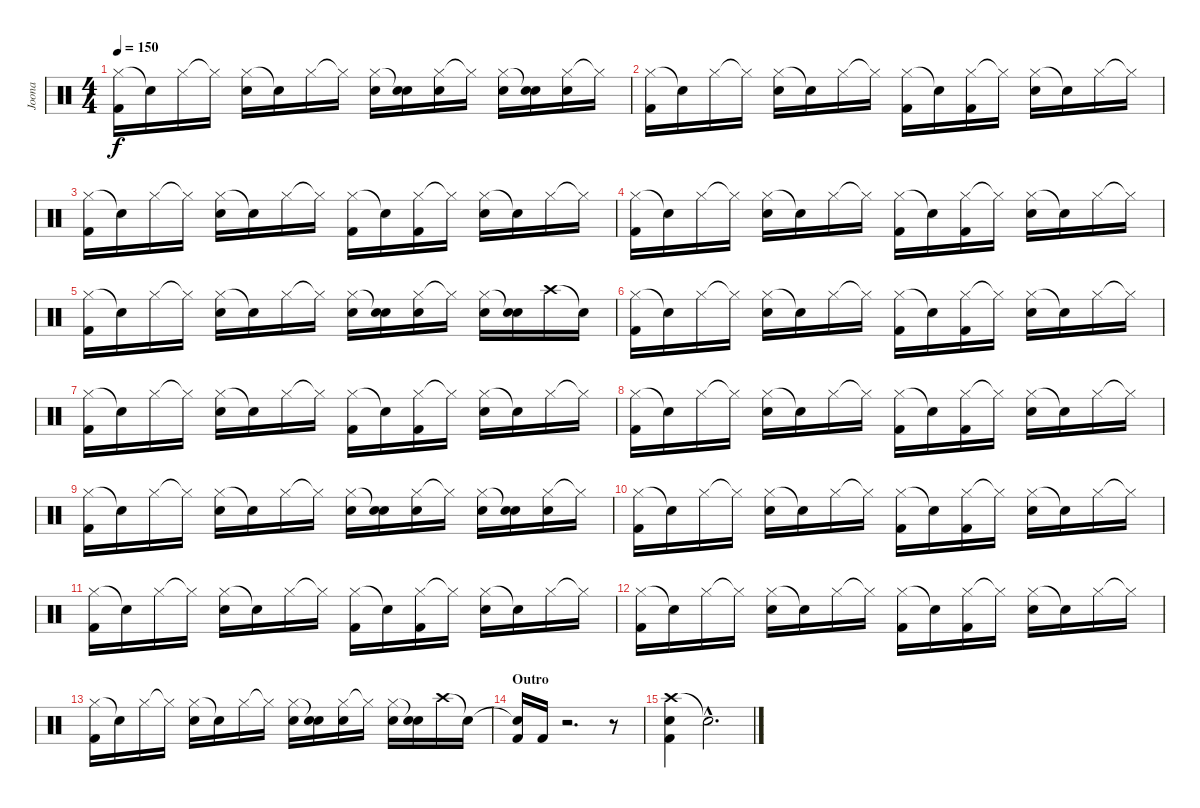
\track ("Joona" "Joona") {instrument percussion}
\staff {score}
\articulation defaults
\ts (4 4)
\tempo 150
\clef neutral
\ks c
("Hi-Hat (closed)" "Kick (hit) 2").16{dy f} "Snare (hit)"{t}.16 "Hi-Hat (closed)".16 "Hi-Hat (closed)"{t}.16 ("Hi-Hat (closed)" "Snare (hit) 2").16 "Snare (hit)"{t}.16 "Hi-Hat (closed)".16 "Hi-Hat (closed)"{t}.16 ("Hi-Hat (closed)" "Snare (hit) 2").16 ("Snare (hit)"{t} "Snare (hit) 2").16 ("Hi-Hat (closed)" "Snare (hit) 2").16 "Hi-Hat (closed)"{t}.16 ("Hi-Hat (closed)" "Snare (hit) 2").16 ("Snare (hit)"{t} "Snare (hit) 2").16 ("Hi-Hat (closed)" "Snare (hit) 2").16 "Hi-Hat (closed)"{t}.16 |
("Hi-Hat (closed)" "Kick (hit) 2").16 "Snare (hit)"{t}.16 "Hi-Hat (closed)".16 "Hi-Hat (closed)"{t}.16 ("Hi-Hat (closed)" "Snare (hit) 2").16 "Snare (hit)"{t}.16 "Hi-Hat (closed)".16 "Hi-Hat (closed)"{t}.16 ("Hi-Hat (closed)" "Kick (hit) 2").16 "Snare (hit)"{t}.16 ("Hi-Hat (closed)" "Kick (hit) 2").16 "Hi-Hat (closed)"{t}.16 ("Hi-Hat (closed)" "Snare (hit) 2").16 "Snare (hit)"{t}.16 "Hi-Hat (closed)".16 "Hi-Hat (closed)"{t}.16 |
("Hi-Hat (closed)" "Kick (hit) 2").16 "Snare (hit)"{t}.16 "Hi-Hat (closed)".16 "Hi-Hat (closed)"{t}.16 ("Hi-Hat (closed)" "Snare (hit) 2").16 "Snare (hit)"{t}.16 "Hi-Hat (closed)".16 "Hi-Hat (closed)"{t}.16 ("Hi-Hat (closed)" "Kick (hit) 2").16 "Snare (hit)"{t}.16 ("Hi-Hat (closed)" "Kick (hit) 2").16 "Hi-Hat (closed)"{t}.16 ("Hi-Hat (closed)" "Snare (hit) 2").16 "Snare (hit)"{t}.16 "Hi-Hat (closed)".16 "Hi-Hat (closed)"{t}.16 |
("Hi-Hat (closed)" "Kick (hit) 2").16 "Snare (hit)"{t}.16 "Hi-Hat (closed)".16 "Hi-Hat (closed)"{t}.16 ("Hi-Hat (closed)" "Snare (hit) 2").16 "Snare (hit)"{t}.16 "Hi-Hat (closed)".16 "Hi-Hat (closed)"{t}.16 ("Hi-Hat (closed)" "Kick (hit) 2").16 "Snare (hit)"{t}.16 ("Hi-Hat (closed)" "Kick (hit) 2").16 "Hi-Hat (closed)"{t}.16 ("Hi-Hat (closed)" "Snare (hit) 2").16 "Snare (hit)"{t}.16 "Hi-Hat (closed)".16 "Hi-Hat (closed)"{t}.16 |
("Hi-Hat (closed)" "Kick (hit) 2").16 "Snare (hit)"{t}.16 "Hi-Hat (closed)".16 "Hi-Hat (closed)"{t}.16 ("Hi-Hat (closed)" "Snare (hit) 2").16 "Snare (hit)"{t}.16 "Hi-Hat (closed)".16 "Hi-Hat (closed)"{t}.16 ("Hi-Hat (closed)" "Snare (hit) 2").16 ("Snare (hit)"{t} "Snare (hit) 2").16 ("Hi-Hat (closed)" "Snare (hit) 2").16 "Hi-Hat (closed)"{t}.16 ("Hi-Hat (closed)" "Snare (hit) 2").16 ("Snare (hit)"{t} "Snare (hit) 2").16 "Crash high (hit)".16 "Snare (hit)"{t}.16 |
("Hi-Hat (closed)" "Kick (hit) 2").16 "Snare (hit)"{t}.16 "Hi-Hat (closed)".16 "Hi-Hat (closed)"{t}.16 ("Hi-Hat (closed)" "Snare (hit) 2").16 "Snare (hit)"{t}.16 "Hi-Hat (closed)".16 "Hi-Hat (closed)"{t}.16 ("Hi-Hat (closed)" "Kick (hit) 2").16 "Snare (hit)"{t}.16 ("Hi-Hat (closed)" "Kick (hit) 2").16 "Hi-Hat (closed)"{t}.16 ("Hi-Hat (closed)" "Snare (hit) 2").16 "Snare (hit)"{t}.16 "Hi-Hat (closed)".16 "Hi-Hat (closed)"{t}.16 |
("Hi-Hat (closed)" "Kick (hit) 2").16 "Snare (hit)"{t}.16 "Hi-Hat (closed)".16 "Hi-Hat (closed)"{t}.16 ("Hi-Hat (closed)" "Snare (hit) 2").16 "Snare (hit)"{t}.16 "Hi-Hat (closed)".16 "Hi-Hat (closed)"{t}.16 ("Hi-Hat (closed)" "Kick (hit) 2").16 "Snare (hit)"{t}.16 ("Hi-Hat (closed)" "Kick (hit) 2").16 "Hi-Hat (closed)"{t}.16 ("Hi-Hat (closed)" "Snare (hit) 2").16 "Snare (hit)"{t}.16 "Hi-Hat (closed)".16 "Hi-Hat (closed)"{t}.16 |
("Hi-Hat (closed)" "Kick (hit) 2").16 "Snare (hit)"{t}.16 "Hi-Hat (closed)".16 "Hi-Hat (closed)"{t}.16 ("Hi-Hat (closed)" "Snare (hit) 2").16 "Snare (hit)"{t}.16 "Hi-Hat (closed)".16 "Hi-Hat (closed)"{t}.16 ("Hi-Hat (closed)" "Kick (hit) 2").16 "Snare (hit)"{t}.16 ("Hi-Hat (closed)" "Kick (hit) 2").16 "Hi-Hat (closed)"{t}.16 ("Hi-Hat (closed)" "Snare (hit) 2").16 "Snare (hit)"{t}.16 "Hi-Hat (closed)".16 "Hi-Hat (closed)"{t}.16 |
("Hi-Hat (closed)" "Kick (hit) 2").16 "Snare (hit)"{t}.16 "Hi-Hat (closed)".16 "Hi-Hat (closed)"{t}.16 ("Hi-Hat (closed)" "Snare (hit) 2").16 "Snare (hit)"{t}.16 "Hi-Hat (closed)".16 "Hi-Hat (closed)"{t}.16 ("Hi-Hat (closed)" "Snare (hit) 2").16 ("Snare (hit)"{t} "Snare (hit) 2").16 ("Hi-Hat (closed)" "Snare (hit) 2").16 "Hi-Hat (closed)"{t}.16 ("Hi-Hat (closed)" "Snare (hit) 2").16 ("Snare (hit)"{t} "Snare (hit) 2").16 ("Hi-Hat (closed)" "Snare (hit) 2").16 "Hi-Hat (closed)"{t}.16 |
("Hi-Hat (closed)" "Kick (hit) 2").16 "Snare (hit)"{t}.16 "Hi-Hat (closed)".16 "Hi-Hat (closed)"{t}.16 ("Hi-Hat (closed)" "Snare (hit) 2").16 "Snare (hit)"{t}.16 "Hi-Hat (closed)".16 "Hi-Hat (closed)"{t}.16 ("Hi-Hat (closed)" "Kick (hit) 2").16 "Snare (hit)"{t}.16 ("Hi-Hat (closed)" "Kick (hit) 2").16 "Hi-Hat (closed)"{t}.16 ("Hi-Hat (closed)" "Snare (hit) 2").16 "Snare (hit)"{t}.16 "Hi-Hat (closed)".16 "Hi-Hat (closed)"{t}.16 |
("Hi-Hat (closed)" "Kick (hit) 2").16 "Snare (hit)"{t}.16 "Hi-Hat (closed)".16 "Hi-Hat (closed)"{t}.16 ("Hi-Hat (closed)" "Snare (hit) 2").16 "Snare (hit)"{t}.16 "Hi-Hat (closed)".16 "Hi-Hat (closed)"{t}.16 ("Hi-Hat (closed)" "Kick (hit) 2").16 "Snare (hit)"{t}.16 ("Hi-Hat (closed)" "Kick (hit) 2").16 "Hi-Hat (closed)"{t}.16 ("Hi-Hat (closed)" "Snare (hit) 2").16 "Snare (hit)"{t}.16 "Hi-Hat (closed)".16 "Hi-Hat (closed)"{t}.16 |
("Hi-Hat (closed)" "Kick (hit) 2").16 "Snare (hit)"{t}.16 "Hi-Hat (closed)".16 "Hi-Hat (closed)"{t}.16 ("Hi-Hat (closed)" "Snare (hit) 2").16 "Snare (hit)"{t}.16 "Hi-Hat (closed)".16 "Hi-Hat (closed)"{t}.16 ("Hi-Hat (closed)" "Kick (hit) 2").16 "Snare (hit)"{t}.16 ("Hi-Hat (closed)" "Kick (hit) 2").16 "Hi-Hat (closed)"{t}.16 ("Hi-Hat (closed)" "Snare (hit) 2").16 "Snare (hit)"{t}.16 "Hi-Hat (closed)".16 "Hi-Hat (closed)"{t}.16 |
("Hi-Hat (closed)" "Kick (hit) 2").16 "Snare (hit)"{t}.16 "Hi-Hat (closed)".16 "Hi-Hat (closed)"{t}.16 ("Hi-Hat (closed)" "Snare (hit) 2").16 "Snare (hit)"{t}.16 "Hi-Hat (closed)".16 "Hi-Hat (closed)"{t}.16 ("Hi-Hat (closed)" "Snare (hit) 2").16 ("Snare (hit)"{t} "Snare (hit) 2").16 ("Hi-Hat (closed)" "Snare (hit) 2").16 "Hi-Hat (closed)"{t}.16 ("Hi-Hat (closed)" "Snare (hit) 2").16 ("Snare (hit)"{t} "Snare (hit) 2").16 "Crash high (hit)".16 "Snare (hit)"{t}.16 |
\section ("" "Outro")
("Snare (hit)"{t} "Kick (hit) 2").16 "Kick (hit) 2".16 r.2{d} r.8 |
("Crash high (hit)" "Kick (hit) 2" "Snare (hit) 2").4 "Snare (hit)"{hac t}.2{d}
